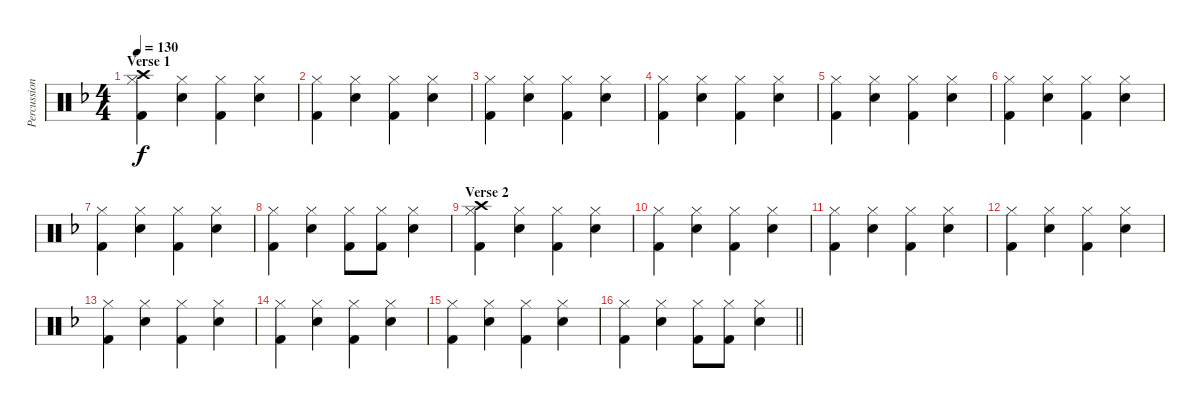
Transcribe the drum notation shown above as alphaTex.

\track ("Percussions" "Percussion") {instrument percussion}
\staff {score}
\articulation defaults
\ts (4 4)
\section ("" "Verse 1")
\tempo 130
\clef neutral
\ks f
("Kick (hit) 2" "Hi-Hat (closed)" "Crash high (hit)").4{dy f} ("Snare (hit) 2" "Hi-Hat (closed)").4 ("Kick (hit) 2" "Hi-Hat (closed)").4 ("Snare (hit) 2" "Hi-Hat (closed)").4 |
("Kick (hit) 2" "Hi-Hat (closed)").4 ("Snare (hit) 2" "Hi-Hat (closed)").4 ("Kick (hit) 2" "Hi-Hat (closed)").4 ("Snare (hit) 2" "Hi-Hat (closed)").4 |
("Kick (hit) 2" "Hi-Hat (closed)").4 ("Snare (hit) 2" "Hi-Hat (closed)").4 ("Kick (hit) 2" "Hi-Hat (closed)").4 ("Snare (hit) 2" "Hi-Hat (closed)").4 |
("Kick (hit) 2" "Hi-Hat (closed)").4 ("Snare (hit) 2" "Hi-Hat (closed)").4 ("Kick (hit) 2" "Hi-Hat (closed)").4 ("Snare (hit) 2" "Hi-Hat (closed)").4 |
("Kick (hit) 2" "Hi-Hat (closed)").4 ("Snare (hit) 2" "Hi-Hat (closed)").4 ("Kick (hit) 2" "Hi-Hat (closed)").4 ("Snare (hit) 2" "Hi-Hat (closed)").4 |
("Kick (hit) 2" "Hi-Hat (closed)").4 ("Snare (hit) 2" "Hi-Hat (closed)").4 ("Kick (hit) 2" "Hi-Hat (closed)").4 ("Snare (hit) 2" "Hi-Hat (closed)").4 |
("Kick (hit) 2" "Hi-Hat (closed)").4 ("Snare (hit) 2" "Hi-Hat (closed)").4 ("Kick (hit) 2" "Hi-Hat (closed)").4 ("Snare (hit) 2" "Hi-Hat (closed)").4 |
("Kick (hit) 2" "Hi-Hat (closed)").4 ("Snare (hit) 2" "Hi-Hat (closed)").4 ("Kick (hit) 2" "Hi-Hat (closed)").8 ("Kick (hit) 2" "Hi-Hat (closed)").8 ("Snare (hit) 2" "Hi-Hat (closed)").4 |
\section ("" "Verse 2")
("Kick (hit) 2" "Hi-Hat (closed)" "Crash high (hit)").4 ("Snare (hit) 2" "Hi-Hat (closed)").4 ("Kick (hit) 2" "Hi-Hat (closed)").4 ("Snare (hit) 2" "Hi-Hat (closed)").4 |
("Kick (hit) 2" "Hi-Hat (closed)").4 ("Snare (hit) 2" "Hi-Hat (closed)").4 ("Kick (hit) 2" "Hi-Hat (closed)").4 ("Snare (hit) 2" "Hi-Hat (closed)").4 |
("Kick (hit) 2" "Hi-Hat (closed)").4 ("Snare (hit) 2" "Hi-Hat (closed)").4 ("Kick (hit) 2" "Hi-Hat (closed)").4 ("Snare (hit) 2" "Hi-Hat (closed)").4 |
("Kick (hit) 2" "Hi-Hat (closed)").4 ("Snare (hit) 2" "Hi-Hat (closed)").4 ("Kick (hit) 2" "Hi-Hat (closed)").4 ("Snare (hit) 2" "Hi-Hat (closed)").4 |
("Kick (hit) 2" "Hi-Hat (closed)").4 ("Snare (hit) 2" "Hi-Hat (closed)").4 ("Kick (hit) 2" "Hi-Hat (closed)").4 ("Snare (hit) 2" "Hi-Hat (closed)").4 |
("Kick (hit) 2" "Hi-Hat (closed)").4 ("Snare (hit) 2" "Hi-Hat (closed)").4 ("Kick (hit) 2" "Hi-Hat (closed)").4 ("Snare (hit) 2" "Hi-Hat (closed)").4 |
("Kick (hit) 2" "Hi-Hat (closed)").4 ("Snare (hit) 2" "Hi-Hat (closed)").4 ("Kick (hit) 2" "Hi-Hat (closed)").4 ("Snare (hit) 2" "Hi-Hat (closed)").4 |
\barLineRight lightlight
("Kick (hit) 2" "Hi-Hat (closed)").4 ("Snare (hit) 2" "Hi-Hat (closed)").4 ("Kick (hit) 2" "Hi-Hat (closed)").8 ("Kick (hit) 2" "Hi-Hat (closed)").8 ("Snare (hit) 2" "Hi-Hat (closed)").4
